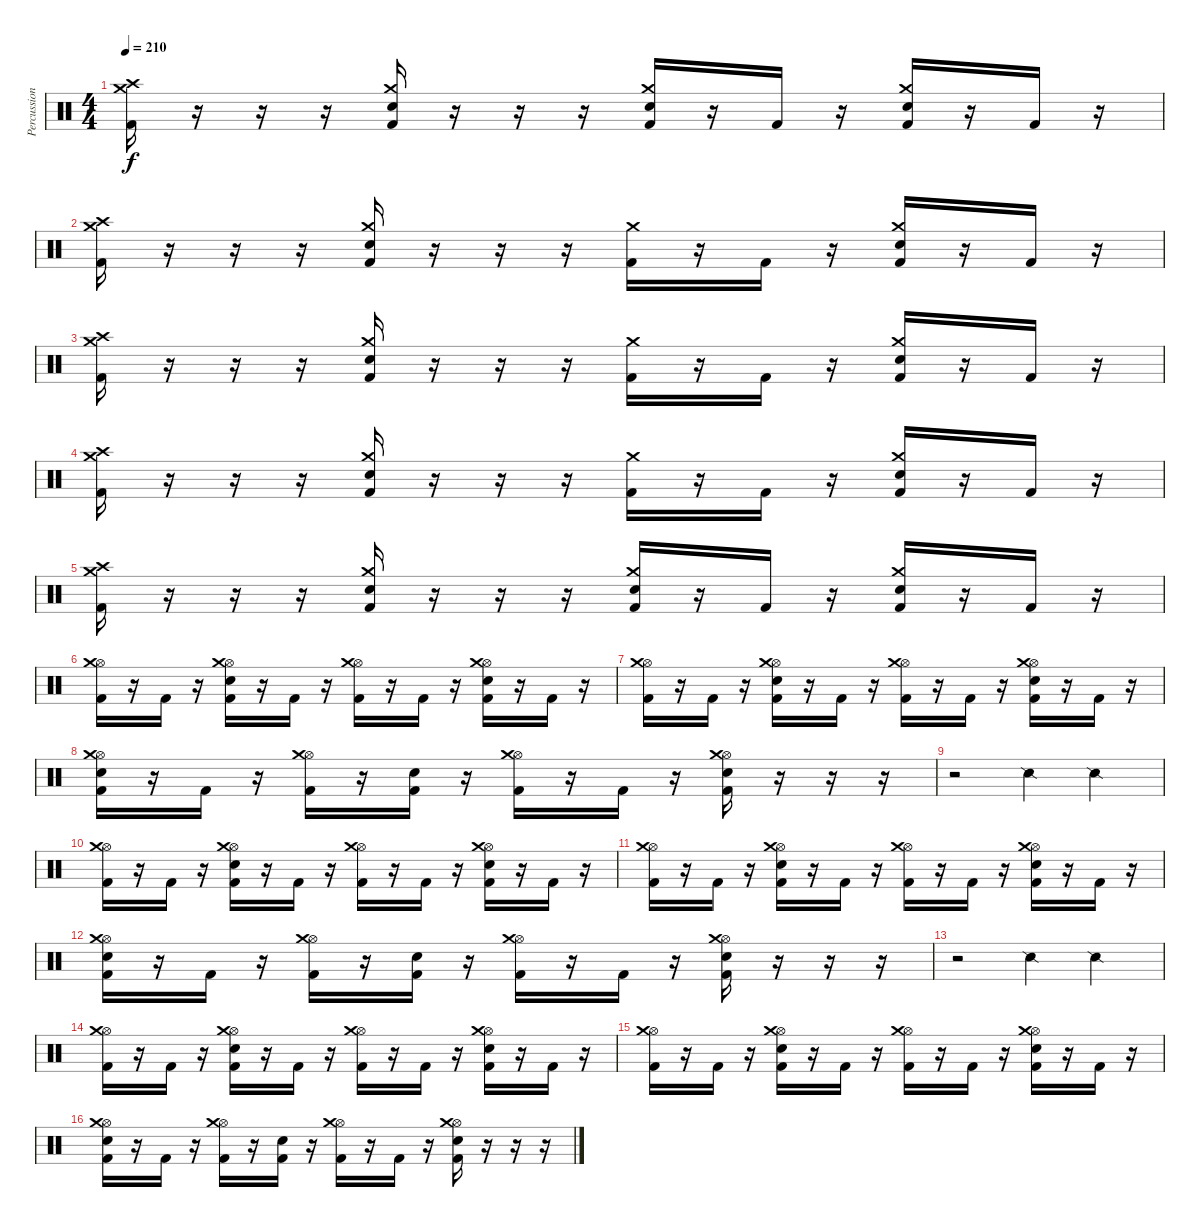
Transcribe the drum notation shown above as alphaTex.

\track ("Percussion" "Percussion") {instrument percussion}
\staff {score}
\articulation defaults
\ts (4 4)
\tempo 210
\clef neutral
\ks c
("Kick (hit) 2" "Crash high (hit)" "Crash medium (hit)").16{dy f} r.16 r.16 r.16 ("Kick (hit) 2" "Electric Snare (hit)" "Crash medium (hit)").16 r.16 r.16 r.16 ("Kick (hit) 2" "Electric Snare (hit)" "Crash medium (hit)").16 r.16 "Kick (hit) 2".16 r.16 ("Kick (hit) 2" "Electric Snare (hit)" "Crash medium (hit)").16 r.16 "Kick (hit) 2".16 r.16 |
("Kick (hit) 2" "Crash high (hit)" "Crash medium (hit)").16 r.16 r.16 r.16 ("Kick (hit) 2" "Electric Snare (hit)" "Crash medium (hit)").16 r.16 r.16 r.16 ("Kick (hit) 2" "Crash medium (hit)").16 r.16 "Kick (hit) 2".16 r.16 ("Kick (hit) 2" "Electric Snare (hit)" "Crash medium (hit)").16 r.16 "Kick (hit) 2".16 r.16 |
("Kick (hit) 2" "Crash high (hit)" "Crash medium (hit)").16 r.16 r.16 r.16 ("Kick (hit) 2" "Electric Snare (hit)" "Crash medium (hit)").16 r.16 r.16 r.16 ("Kick (hit) 2" "Crash medium (hit)").16 r.16 "Kick (hit) 2".16 r.16 ("Kick (hit) 2" "Electric Snare (hit)" "Crash medium (hit)").16 r.16 "Kick (hit) 2".16 r.16 |
("Kick (hit) 2" "Crash high (hit)" "Crash medium (hit)").16 r.16 r.16 r.16 ("Kick (hit) 2" "Electric Snare (hit)" "Crash medium (hit)").16 r.16 r.16 r.16 ("Kick (hit) 2" "Crash medium (hit)").16 r.16 "Kick (hit) 2".16 r.16 ("Kick (hit) 2" "Electric Snare (hit)" "Crash medium (hit)").16 r.16 "Kick (hit) 2".16 r.16 |
("Kick (hit) 2" "Crash high (hit)" "Crash medium (hit)").16 r.16 r.16 r.16 ("Kick (hit) 2" "Electric Snare (hit)" "Crash medium (hit)").16 r.16 r.16 r.16 ("Kick (hit) 2" "Electric Snare (hit)" "Crash medium (hit)").16 r.16 "Kick (hit) 2".16 r.16 ("Kick (hit) 2" "Electric Snare (hit)" "Crash medium (hit)").16 r.16 "Kick (hit) 2".16 r.16 |
("Kick (hit) 2" "Hi-Hat (open)" "Crash medium (hit)").16 r.16 "Kick (hit) 2".16 r.16 ("Kick (hit) 2" "Electric Snare (hit)" "Hi-Hat (open)" "Crash medium (hit)").16 r.16 "Kick (hit) 2".16 r.16 ("Kick (hit) 2" "Hi-Hat (open)" "Crash medium (hit)").16 r.16 "Kick (hit) 2".16 r.16 ("Kick (hit) 2" "Electric Snare (hit)" "Hi-Hat (open)" "Crash medium (hit)").16 r.16 "Kick (hit) 2".16 r.16 |
("Kick (hit) 2" "Hi-Hat (open)" "Crash medium (hit)").16 r.16 "Kick (hit) 2".16 r.16 ("Kick (hit) 2" "Electric Snare (hit)" "Hi-Hat (open)" "Crash medium (hit)").16 r.16 "Kick (hit) 2".16 r.16 ("Kick (hit) 2" "Hi-Hat (open)" "Crash medium (hit)").16 r.16 "Kick (hit) 2".16 r.16 ("Kick (hit) 2" "Electric Snare (hit)" "Hi-Hat (open)" "Crash medium (hit)").16 r.16 "Kick (hit) 2".16 r.16 |
("Kick (hit) 2" "Electric Snare (hit)" "Hi-Hat (open)" "Crash medium (hit)").16 r.16 "Kick (hit) 2".16 r.16 ("Kick (hit) 2" "Hi-Hat (open)" "Crash medium (hit)").16 r.16 ("Kick (hit) 2" "Electric Snare (hit)").16 r.16 ("Kick (hit) 2" "Hi-Hat (open)" "Crash medium (hit)").16 r.16 "Kick (hit) 2".16 r.16 ("Kick (hit) 2" "Electric Snare (hit)" "Hi-Hat (open)" "Crash medium (hit)").16 r.16 r.16 r.16 |
r.2 "Snare (side stick) 2".4 "Snare (side stick) 2".4 |
("Kick (hit) 2" "Hi-Hat (open)" "Crash medium (hit)").16 r.16 "Kick (hit) 2".16 r.16 ("Kick (hit) 2" "Electric Snare (hit)" "Hi-Hat (open)" "Crash medium (hit)").16 r.16 "Kick (hit) 2".16 r.16 ("Kick (hit) 2" "Hi-Hat (open)" "Crash medium (hit)").16 r.16 "Kick (hit) 2".16 r.16 ("Kick (hit) 2" "Electric Snare (hit)" "Hi-Hat (open)" "Crash medium (hit)").16 r.16 "Kick (hit) 2".16 r.16 |
("Kick (hit) 2" "Hi-Hat (open)" "Crash medium (hit)").16 r.16 "Kick (hit) 2".16 r.16 ("Kick (hit) 2" "Electric Snare (hit)" "Hi-Hat (open)" "Crash medium (hit)").16 r.16 "Kick (hit) 2".16 r.16 ("Kick (hit) 2" "Hi-Hat (open)" "Crash medium (hit)").16 r.16 "Kick (hit) 2".16 r.16 ("Kick (hit) 2" "Electric Snare (hit)" "Hi-Hat (open)" "Crash medium (hit)").16 r.16 "Kick (hit) 2".16 r.16 |
("Kick (hit) 2" "Electric Snare (hit)" "Hi-Hat (open)" "Crash medium (hit)").16 r.16 "Kick (hit) 2".16 r.16 ("Kick (hit) 2" "Hi-Hat (open)" "Crash medium (hit)").16 r.16 ("Kick (hit) 2" "Electric Snare (hit)").16 r.16 ("Kick (hit) 2" "Hi-Hat (open)" "Crash medium (hit)").16 r.16 "Kick (hit) 2".16 r.16 ("Kick (hit) 2" "Electric Snare (hit)" "Hi-Hat (open)" "Crash medium (hit)").16 r.16 r.16 r.16 |
r.2 "Snare (side stick) 2".4 "Snare (side stick) 2".4 |
("Kick (hit) 2" "Hi-Hat (open)" "Crash medium (hit)").16 r.16 "Kick (hit) 2".16 r.16 ("Kick (hit) 2" "Electric Snare (hit)" "Hi-Hat (open)" "Crash medium (hit)").16 r.16 "Kick (hit) 2".16 r.16 ("Kick (hit) 2" "Hi-Hat (open)" "Crash medium (hit)").16 r.16 "Kick (hit) 2".16 r.16 ("Kick (hit) 2" "Electric Snare (hit)" "Hi-Hat (open)" "Crash medium (hit)").16 r.16 "Kick (hit) 2".16 r.16 |
("Kick (hit) 2" "Hi-Hat (open)" "Crash medium (hit)").16 r.16 "Kick (hit) 2".16 r.16 ("Kick (hit) 2" "Electric Snare (hit)" "Hi-Hat (open)" "Crash medium (hit)").16 r.16 "Kick (hit) 2".16 r.16 ("Kick (hit) 2" "Hi-Hat (open)" "Crash medium (hit)").16 r.16 "Kick (hit) 2".16 r.16 ("Kick (hit) 2" "Electric Snare (hit)" "Hi-Hat (open)" "Crash medium (hit)").16 r.16 "Kick (hit) 2".16 r.16 |
("Kick (hit) 2" "Electric Snare (hit)" "Hi-Hat (open)" "Crash medium (hit)").16 r.16 "Kick (hit) 2".16 r.16 ("Kick (hit) 2" "Hi-Hat (open)" "Crash medium (hit)").16 r.16 ("Kick (hit) 2" "Electric Snare (hit)").16 r.16 ("Kick (hit) 2" "Hi-Hat (open)" "Crash medium (hit)").16 r.16 "Kick (hit) 2".16 r.16 ("Kick (hit) 2" "Electric Snare (hit)" "Hi-Hat (open)" "Crash medium (hit)").16 r.16 r.16 r.16
